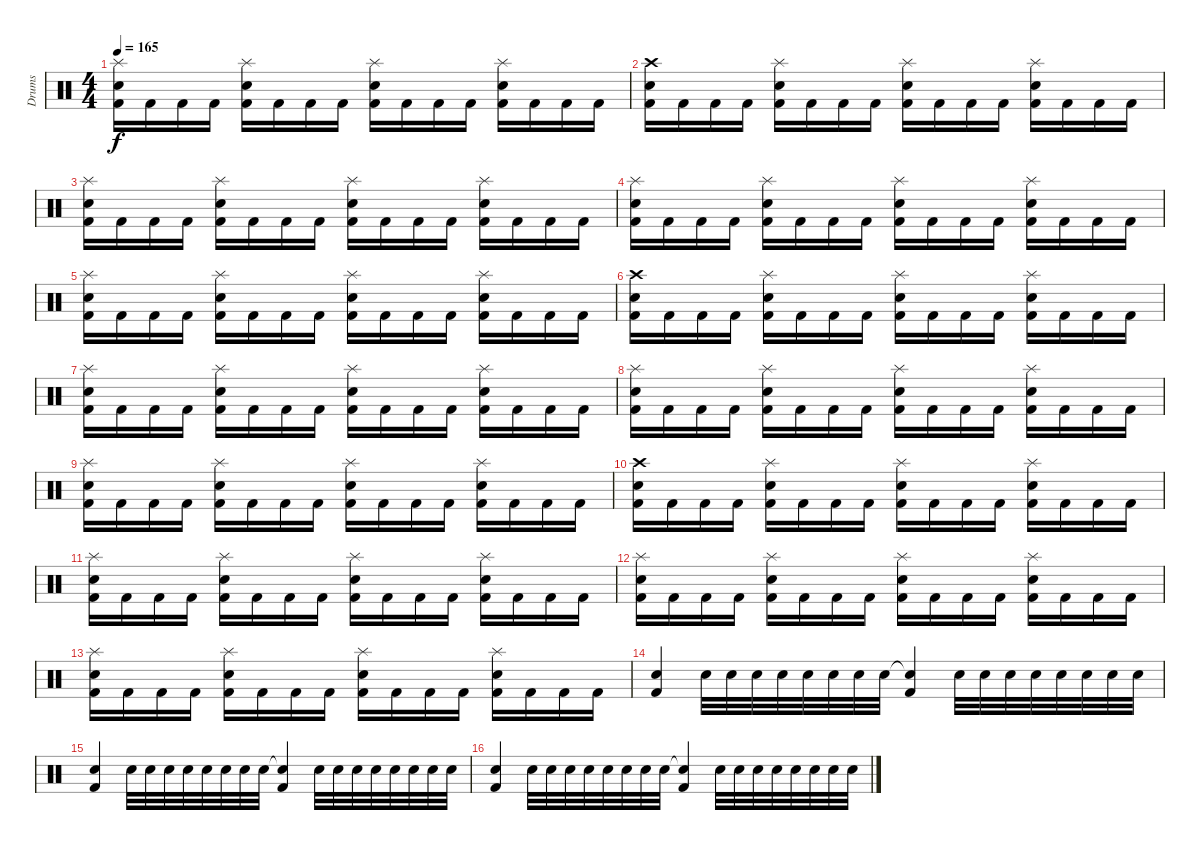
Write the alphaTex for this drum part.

\track ("Drums" "Drums") {instrument percussion}
\staff {score}
\articulation defaults
\ts (4 4)
\tempo 165
\clef neutral
\ks c
("Kick (hit) 2" "Snare (hit) 2" "Splash (hit)").16{dy f} "Kick (hit) 2".16 "Kick (hit) 2".16 "Kick (hit) 2".16 ("Kick (hit) 2" "Snare (hit) 2" "Splash (hit)").16 "Kick (hit) 2".16 "Kick (hit) 2".16 "Kick (hit) 2".16 ("Kick (hit) 2" "Snare (hit) 2" "Splash (hit)").16 "Kick (hit) 2".16 "Kick (hit) 2".16 "Kick (hit) 2".16 ("Kick (hit) 2" "Snare (hit) 2" "Splash (hit)").16 "Kick (hit) 2".16 "Kick (hit) 2".16 "Kick (hit) 2".16 |
("Kick (hit) 2" "Snare (hit) 2" "Crash high (hit)").16 "Kick (hit) 2".16 "Kick (hit) 2".16 "Kick (hit) 2".16 ("Kick (hit) 2" "Snare (hit) 2" "Splash (hit)").16 "Kick (hit) 2".16 "Kick (hit) 2".16 "Kick (hit) 2".16 ("Kick (hit) 2" "Snare (hit) 2" "Splash (hit)").16 "Kick (hit) 2".16 "Kick (hit) 2".16 "Kick (hit) 2".16 ("Kick (hit) 2" "Snare (hit) 2" "Splash (hit)").16 "Kick (hit) 2".16 "Kick (hit) 2".16 "Kick (hit) 2".16 |
("Kick (hit) 2" "Snare (hit) 2" "Splash (hit)").16 "Kick (hit) 2".16 "Kick (hit) 2".16 "Kick (hit) 2".16 ("Kick (hit) 2" "Snare (hit) 2" "Splash (hit)").16 "Kick (hit) 2".16 "Kick (hit) 2".16 "Kick (hit) 2".16 ("Kick (hit) 2" "Snare (hit) 2" "Splash (hit)").16 "Kick (hit) 2".16 "Kick (hit) 2".16 "Kick (hit) 2".16 ("Kick (hit) 2" "Snare (hit) 2" "Splash (hit)").16 "Kick (hit) 2".16 "Kick (hit) 2".16 "Kick (hit) 2".16 |
("Kick (hit) 2" "Snare (hit) 2" "Splash (hit)").16 "Kick (hit) 2".16 "Kick (hit) 2".16 "Kick (hit) 2".16 ("Kick (hit) 2" "Snare (hit) 2" "Splash (hit)").16 "Kick (hit) 2".16 "Kick (hit) 2".16 "Kick (hit) 2".16 ("Kick (hit) 2" "Snare (hit) 2" "Splash (hit)").16 "Kick (hit) 2".16 "Kick (hit) 2".16 "Kick (hit) 2".16 ("Kick (hit) 2" "Snare (hit) 2" "Splash (hit)").16 "Kick (hit) 2".16 "Kick (hit) 2".16 "Kick (hit) 2".16 |
("Kick (hit) 2" "Snare (hit) 2" "Splash (hit)").16 "Kick (hit) 2".16 "Kick (hit) 2".16 "Kick (hit) 2".16 ("Kick (hit) 2" "Snare (hit) 2" "Splash (hit)").16 "Kick (hit) 2".16 "Kick (hit) 2".16 "Kick (hit) 2".16 ("Kick (hit) 2" "Snare (hit) 2" "Splash (hit)").16 "Kick (hit) 2".16 "Kick (hit) 2".16 "Kick (hit) 2".16 ("Kick (hit) 2" "Snare (hit) 2" "Splash (hit)").16 "Kick (hit) 2".16 "Kick (hit) 2".16 "Kick (hit) 2".16 |
("Kick (hit) 2" "Snare (hit) 2" "Crash high (hit)").16 "Kick (hit) 2".16 "Kick (hit) 2".16 "Kick (hit) 2".16 ("Kick (hit) 2" "Snare (hit) 2" "Splash (hit)").16 "Kick (hit) 2".16 "Kick (hit) 2".16 "Kick (hit) 2".16 ("Kick (hit) 2" "Snare (hit) 2" "Splash (hit)").16 "Kick (hit) 2".16 "Kick (hit) 2".16 "Kick (hit) 2".16 ("Kick (hit) 2" "Snare (hit) 2" "Splash (hit)").16 "Kick (hit) 2".16 "Kick (hit) 2".16 "Kick (hit) 2".16 |
("Kick (hit) 2" "Snare (hit) 2" "Splash (hit)").16 "Kick (hit) 2".16 "Kick (hit) 2".16 "Kick (hit) 2".16 ("Kick (hit) 2" "Snare (hit) 2" "Splash (hit)").16 "Kick (hit) 2".16 "Kick (hit) 2".16 "Kick (hit) 2".16 ("Kick (hit) 2" "Snare (hit) 2" "Splash (hit)").16 "Kick (hit) 2".16 "Kick (hit) 2".16 "Kick (hit) 2".16 ("Kick (hit) 2" "Snare (hit) 2" "Splash (hit)").16 "Kick (hit) 2".16 "Kick (hit) 2".16 "Kick (hit) 2".16 |
("Kick (hit) 2" "Snare (hit) 2" "Splash (hit)").16 "Kick (hit) 2".16 "Kick (hit) 2".16 "Kick (hit) 2".16 ("Kick (hit) 2" "Snare (hit) 2" "Splash (hit)").16 "Kick (hit) 2".16 "Kick (hit) 2".16 "Kick (hit) 2".16 ("Kick (hit) 2" "Snare (hit) 2" "Splash (hit)").16 "Kick (hit) 2".16 "Kick (hit) 2".16 "Kick (hit) 2".16 ("Kick (hit) 2" "Snare (hit) 2" "Splash (hit)").16 "Kick (hit) 2".16 "Kick (hit) 2".16 "Kick (hit) 2".16 |
("Kick (hit) 2" "Snare (hit) 2" "Splash (hit)").16 "Kick (hit) 2".16 "Kick (hit) 2".16 "Kick (hit) 2".16 ("Kick (hit) 2" "Snare (hit) 2" "Splash (hit)").16 "Kick (hit) 2".16 "Kick (hit) 2".16 "Kick (hit) 2".16 ("Kick (hit) 2" "Snare (hit) 2" "Splash (hit)").16 "Kick (hit) 2".16 "Kick (hit) 2".16 "Kick (hit) 2".16 ("Kick (hit) 2" "Snare (hit) 2" "Splash (hit)").16 "Kick (hit) 2".16 "Kick (hit) 2".16 "Kick (hit) 2".16 |
("Kick (hit) 2" "Snare (hit) 2" "Crash high (hit)").16 "Kick (hit) 2".16 "Kick (hit) 2".16 "Kick (hit) 2".16 ("Kick (hit) 2" "Snare (hit) 2" "Splash (hit)").16 "Kick (hit) 2".16 "Kick (hit) 2".16 "Kick (hit) 2".16 ("Kick (hit) 2" "Snare (hit) 2" "Splash (hit)").16 "Kick (hit) 2".16 "Kick (hit) 2".16 "Kick (hit) 2".16 ("Kick (hit) 2" "Snare (hit) 2" "Splash (hit)").16 "Kick (hit) 2".16 "Kick (hit) 2".16 "Kick (hit) 2".16 |
("Kick (hit) 2" "Snare (hit) 2" "Splash (hit)").16 "Kick (hit) 2".16 "Kick (hit) 2".16 "Kick (hit) 2".16 ("Kick (hit) 2" "Snare (hit) 2" "Splash (hit)").16 "Kick (hit) 2".16 "Kick (hit) 2".16 "Kick (hit) 2".16 ("Kick (hit) 2" "Snare (hit) 2" "Splash (hit)").16 "Kick (hit) 2".16 "Kick (hit) 2".16 "Kick (hit) 2".16 ("Kick (hit) 2" "Snare (hit) 2" "Splash (hit)").16 "Kick (hit) 2".16 "Kick (hit) 2".16 "Kick (hit) 2".16 |
("Kick (hit) 2" "Snare (hit) 2" "Splash (hit)").16 "Kick (hit) 2".16 "Kick (hit) 2".16 "Kick (hit) 2".16 ("Kick (hit) 2" "Snare (hit) 2" "Splash (hit)").16 "Kick (hit) 2".16 "Kick (hit) 2".16 "Kick (hit) 2".16 ("Kick (hit) 2" "Snare (hit) 2" "Splash (hit)").16 "Kick (hit) 2".16 "Kick (hit) 2".16 "Kick (hit) 2".16 ("Kick (hit) 2" "Snare (hit) 2" "Splash (hit)").16 "Kick (hit) 2".16 "Kick (hit) 2".16 "Kick (hit) 2".16 |
("Kick (hit) 2" "Snare (hit) 2" "Splash (hit)").16 "Kick (hit) 2".16 "Kick (hit) 2".16 "Kick (hit) 2".16 ("Kick (hit) 2" "Snare (hit) 2" "Splash (hit)").16 "Kick (hit) 2".16 "Kick (hit) 2".16 "Kick (hit) 2".16 ("Kick (hit) 2" "Snare (hit) 2" "Splash (hit)").16 "Kick (hit) 2".16 "Kick (hit) 2".16 "Kick (hit) 2".16 ("Kick (hit) 2" "Snare (hit) 2" "Splash (hit)").16 "Kick (hit) 2".16 "Kick (hit) 2".16 "Kick (hit) 2".16 |
("Snare (hit) 2" "Kick (hit) 2").4 "Snare (hit) 2".32{volume 5} "Snare (hit) 2".32{volume 6} "Snare (hit) 2".32{volume 7} "Snare (hit) 2".32{volume 8} "Snare (hit) 2".32{volume 9} "Snare (hit) 2".32{volume 10} "Snare (hit) 2".32{volume 11} "Snare (hit) 2".32{volume 12} ("Snare (hit)"{t} "Kick (hit) 2").4 "Snare (hit) 2".32{volume 5} "Snare (hit) 2".32{volume 6} "Snare (hit) 2".32{volume 7} "Snare (hit) 2".32{volume 8} "Snare (hit) 2".32{volume 9} "Snare (hit) 2".32{volume 10} "Snare (hit) 2".32{volume 11} "Snare (hit) 2".32 |
("Snare (hit) 2" "Kick (hit) 2").4 "Snare (hit) 2".32{volume 5} "Snare (hit) 2".32{volume 6} "Snare (hit) 2".32{volume 7} "Snare (hit) 2".32{volume 8} "Snare (hit) 2".32{volume 9} "Snare (hit) 2".32{volume 10} "Snare (hit) 2".32{volume 11} "Snare (hit) 2".32{volume 12} ("Snare (hit)"{t} "Kick (hit) 2").4 "Snare (hit) 2".32{volume 5} "Snare (hit) 2".32{volume 6} "Snare (hit) 2".32{volume 7} "Snare (hit) 2".32{volume 8} "Snare (hit) 2".32{volume 9} "Snare (hit) 2".32{volume 10} "Snare (hit) 2".32{volume 11} "Snare (hit) 2".32 |
("Snare (hit) 2" "Kick (hit) 2").4 "Snare (hit) 2".32{volume 5} "Snare (hit) 2".32{volume 6} "Snare (hit) 2".32{volume 7} "Snare (hit) 2".32{volume 8} "Snare (hit) 2".32{volume 9} "Snare (hit) 2".32{volume 10} "Snare (hit) 2".32{volume 11} "Snare (hit) 2".32{volume 12} ("Snare (hit)"{t} "Kick (hit) 2").4 "Snare (hit) 2".32{volume 5} "Snare (hit) 2".32{volume 6} "Snare (hit) 2".32{volume 7} "Snare (hit) 2".32{volume 8} "Snare (hit) 2".32{volume 9} "Snare (hit) 2".32{volume 10} "Snare (hit) 2".32{volume 11} "Snare (hit) 2".32
